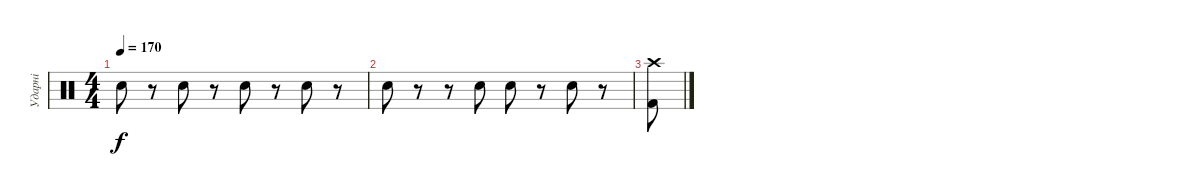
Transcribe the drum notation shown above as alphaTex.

\track ("Ударні" "Ударні") {instrument percussion}
\staff {score}
\articulation defaults
\ts (4 4)
\tempo 170
\clef neutral
\ks c "Electric Snare (hit)".8{dy f}
r.8 "Electric Snare (hit)".8 r.8 "Electric Snare (hit)".8 r.8 "Electric Snare (hit)".8 r.8 |
"Electric Snare (hit)".8 r.8 r.8 "Electric Snare (hit)".8 "Electric Snare (hit)".8 r.8 "Electric Snare (hit)".8 r.8 |
("Kick (hit) 2" "Crash high (hit)").8
